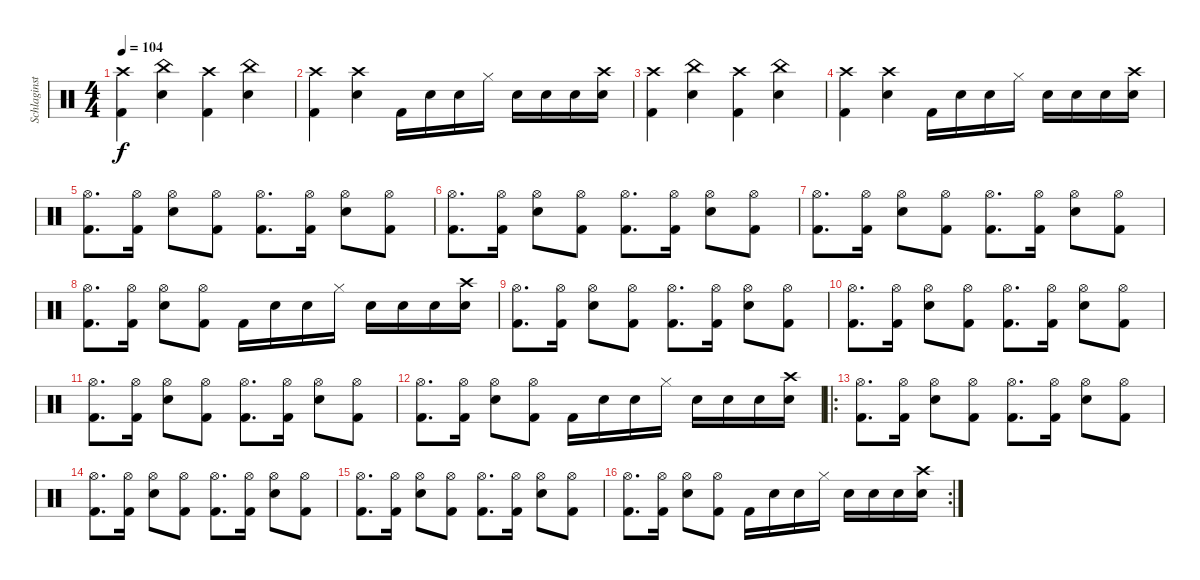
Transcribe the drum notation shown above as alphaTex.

\track ("Schlaginstrumente - Auswahl" "Schlaginst") {instrument percussion}
\staff {score}
\articulation defaults
\ts (4 4)
\tempo 104
\clef neutral
\ks c
("Crash high (hit)" "Kick (hit) 2").4{dy f} ("China (hit)" "Electric Snare (hit)").4 ("Crash high (hit)" "Kick (hit) 2").4 ("China (hit)" "Electric Snare (hit)").4 |
("Crash high (hit)" "Kick (hit) 2").4 ("Crash high (hit)" "Electric Snare (hit)").4 "Kick (hit) 2".16 "Electric Snare (hit)".16 "Electric Snare (hit)".16 "Hi-Hat (closed)".16 "Electric Snare (hit)".16 "Electric Snare (hit)".16 "Electric Snare (hit)".16 ("Crash high (hit)" "Electric Snare (hit)").16 |
("Crash high (hit)" "Kick (hit) 2").4 ("China (hit)" "Electric Snare (hit)").4 ("Crash high (hit)" "Kick (hit) 2").4 ("China (hit)" "Electric Snare (hit)").4 |
("Crash high (hit)" "Kick (hit) 2").4 ("Crash high (hit)" "Electric Snare (hit)").4 "Kick (hit) 2".16 "Electric Snare (hit)".16 "Electric Snare (hit)".16 "Hi-Hat (closed)".16 "Electric Snare (hit)".16 "Electric Snare (hit)".16 "Electric Snare (hit)".16 ("Crash high (hit)" "Electric Snare (hit)").16 |
("Hi-Hat (open)" "Kick (hit) 2").8{d} ("Hi-Hat (open)" "Kick (hit) 2").16 ("Hi-Hat (open)" "Electric Snare (hit)").8 ("Hi-Hat (open)" "Kick (hit) 2").8 ("Hi-Hat (open)" "Kick (hit) 2").8{d} ("Hi-Hat (open)" "Kick (hit) 2").16 ("Hi-Hat (open)" "Electric Snare (hit)").8 ("Hi-Hat (open)" "Kick (hit) 2").8 |
("Hi-Hat (open)" "Kick (hit) 2").8{d} ("Hi-Hat (open)" "Kick (hit) 2").16 ("Hi-Hat (open)" "Electric Snare (hit)").8 ("Hi-Hat (open)" "Kick (hit) 2").8 ("Hi-Hat (open)" "Kick (hit) 2").8{d} ("Hi-Hat (open)" "Kick (hit) 2").16 ("Hi-Hat (open)" "Electric Snare (hit)").8 ("Hi-Hat (open)" "Kick (hit) 2").8 |
("Hi-Hat (open)" "Kick (hit) 2").8{d} ("Hi-Hat (open)" "Kick (hit) 2").16 ("Hi-Hat (open)" "Electric Snare (hit)").8 ("Hi-Hat (open)" "Kick (hit) 2").8 ("Hi-Hat (open)" "Kick (hit) 2").8{d} ("Hi-Hat (open)" "Kick (hit) 2").16 ("Hi-Hat (open)" "Electric Snare (hit)").8 ("Hi-Hat (open)" "Kick (hit) 2").8 |
("Hi-Hat (open)" "Kick (hit) 2").8{d} ("Hi-Hat (open)" "Kick (hit) 2").16 ("Hi-Hat (open)" "Electric Snare (hit)").8 ("Hi-Hat (open)" "Kick (hit) 2").8 "Kick (hit) 2".16 "Electric Snare (hit)".16 "Electric Snare (hit)".16 "Hi-Hat (closed)".16 "Electric Snare (hit)".16 "Electric Snare (hit)".16 "Electric Snare (hit)".16 ("Crash high (hit)" "Electric Snare (hit)").16 |
("Hi-Hat (open)" "Kick (hit) 2").8{d} ("Hi-Hat (open)" "Kick (hit) 2").16 ("Hi-Hat (open)" "Electric Snare (hit)").8 ("Hi-Hat (open)" "Kick (hit) 2").8 ("Hi-Hat (open)" "Kick (hit) 2").8{d} ("Hi-Hat (open)" "Kick (hit) 2").16 ("Hi-Hat (open)" "Electric Snare (hit)").8 ("Hi-Hat (open)" "Kick (hit) 2").8 |
("Hi-Hat (open)" "Kick (hit) 2").8{d} ("Hi-Hat (open)" "Kick (hit) 2").16 ("Hi-Hat (open)" "Electric Snare (hit)").8 ("Hi-Hat (open)" "Kick (hit) 2").8 ("Hi-Hat (open)" "Kick (hit) 2").8{d} ("Hi-Hat (open)" "Kick (hit) 2").16 ("Hi-Hat (open)" "Electric Snare (hit)").8 ("Hi-Hat (open)" "Kick (hit) 2").8 |
("Hi-Hat (open)" "Kick (hit) 2").8{d} ("Hi-Hat (open)" "Kick (hit) 2").16 ("Hi-Hat (open)" "Electric Snare (hit)").8 ("Hi-Hat (open)" "Kick (hit) 2").8 ("Hi-Hat (open)" "Kick (hit) 2").8{d} ("Hi-Hat (open)" "Kick (hit) 2").16 ("Hi-Hat (open)" "Electric Snare (hit)").8 ("Hi-Hat (open)" "Kick (hit) 2").8 |
("Hi-Hat (open)" "Kick (hit) 2").8{d} ("Hi-Hat (open)" "Kick (hit) 2").16 ("Hi-Hat (open)" "Electric Snare (hit)").8 ("Hi-Hat (open)" "Kick (hit) 2").8 "Kick (hit) 2".16 "Electric Snare (hit)".16 "Electric Snare (hit)".16 "Hi-Hat (closed)".16 "Electric Snare (hit)".16 "Electric Snare (hit)".16 "Electric Snare (hit)".16 ("Crash high (hit)" "Electric Snare (hit)").16 |
\ro
("Hi-Hat (open)" "Kick (hit) 2").8{d} ("Hi-Hat (open)" "Kick (hit) 2").16 ("Hi-Hat (open)" "Electric Snare (hit)").8 ("Hi-Hat (open)" "Kick (hit) 2").8 ("Hi-Hat (open)" "Kick (hit) 2").8{d} ("Hi-Hat (open)" "Kick (hit) 2").16 ("Hi-Hat (open)" "Electric Snare (hit)").8 ("Hi-Hat (open)" "Kick (hit) 2").8 |
("Hi-Hat (open)" "Kick (hit) 2").8{d} ("Hi-Hat (open)" "Kick (hit) 2").16 ("Hi-Hat (open)" "Electric Snare (hit)").8 ("Hi-Hat (open)" "Kick (hit) 2").8 ("Hi-Hat (open)" "Kick (hit) 2").8{d} ("Hi-Hat (open)" "Kick (hit) 2").16 ("Hi-Hat (open)" "Electric Snare (hit)").8 ("Hi-Hat (open)" "Kick (hit) 2").8 |
("Hi-Hat (open)" "Kick (hit) 2").8{d} ("Hi-Hat (open)" "Kick (hit) 2").16 ("Hi-Hat (open)" "Electric Snare (hit)").8 ("Hi-Hat (open)" "Kick (hit) 2").8 ("Hi-Hat (open)" "Kick (hit) 2").8{d} ("Hi-Hat (open)" "Kick (hit) 2").16 ("Hi-Hat (open)" "Electric Snare (hit)").8 ("Hi-Hat (open)" "Kick (hit) 2").8 |
\rc 2
("Hi-Hat (open)" "Kick (hit) 2").8{d} ("Hi-Hat (open)" "Kick (hit) 2").16 ("Hi-Hat (open)" "Electric Snare (hit)").8 ("Hi-Hat (open)" "Kick (hit) 2").8 "Kick (hit) 2".16 "Electric Snare (hit)".16 "Electric Snare (hit)".16 "Hi-Hat (closed)".16 "Electric Snare (hit)".16 "Electric Snare (hit)".16 "Electric Snare (hit)".16 ("Crash high (hit)" "Electric Snare (hit)").16
